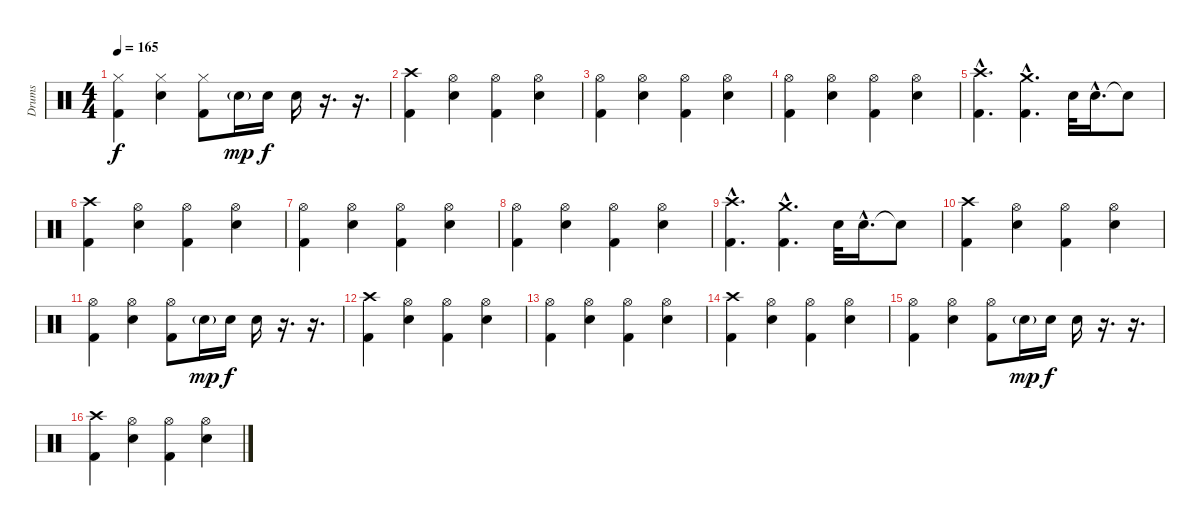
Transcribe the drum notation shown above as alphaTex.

\track ("Drums" "Drums") {instrument percussion}
\staff {score}
\articulation defaults
\ts (4 4)
\tempo 165
\clef neutral
\ks c
("Hi-Hat (closed)" "Kick (hit) 2").4{dy f} ("Hi-Hat (closed)" "Snare (hit) 2").4 ("Hi-Hat (closed)" "Kick (hit) 2").8 "Snare (hit) 2"{g}.16{dy mp} "Snare (hit) 2".16{dy f} "Snare (hit) 2".16 r.16{d} r.16{d} |
("Crash high (hit)" "Kick (hit) 2").4 ("Hi-Hat (open)" "Snare (hit) 2").4 ("Hi-Hat (open)" "Kick (hit) 2").4 ("Hi-Hat (open)" "Snare (hit) 2").4 |
("Hi-Hat (open)" "Kick (hit) 2").4 ("Hi-Hat (open)" "Snare (hit) 2").4 ("Hi-Hat (open)" "Kick (hit) 2").4 ("Hi-Hat (open)" "Snare (hit) 2").4 |
("Hi-Hat (open)" "Kick (hit) 2").4 ("Hi-Hat (open)" "Snare (hit) 2").4 ("Hi-Hat (open)" "Kick (hit) 2").4 ("Hi-Hat (open)" "Snare (hit) 2").4 |
("Crash high (hit)"{hac} "Kick (hit) 2"{hac}).4{d} ("Crash medium (hit)"{hac} "Kick (hit) 2"{hac}).4{d} "Electric Snare (hit)".32 "Electric Snare (hit)"{hac}.16{d} "Electric Snare (hit)"{t}.8 |
("Crash high (hit)" "Kick (hit) 2").4 ("Hi-Hat (open)" "Snare (hit) 2").4 ("Hi-Hat (open)" "Kick (hit) 2").4 ("Hi-Hat (open)" "Snare (hit) 2").4 |
("Hi-Hat (open)" "Kick (hit) 2").4 ("Hi-Hat (open)" "Snare (hit) 2").4 ("Hi-Hat (open)" "Kick (hit) 2").4 ("Hi-Hat (open)" "Snare (hit) 2").4 |
("Hi-Hat (open)" "Kick (hit) 2").4 ("Hi-Hat (open)" "Snare (hit) 2").4 ("Hi-Hat (open)" "Kick (hit) 2").4 ("Hi-Hat (open)" "Snare (hit) 2").4 |
("Crash high (hit)"{hac} "Kick (hit) 2"{hac}).4{d} ("Crash medium (hit)"{hac} "Kick (hit) 2"{hac}).4{d} "Electric Snare (hit)".32 "Electric Snare (hit)"{hac}.16{d} "Electric Snare (hit)"{t}.8 |
("Crash high (hit)" "Kick (hit) 2").4 ("Hi-Hat (open)" "Snare (hit) 2").4 ("Hi-Hat (open)" "Kick (hit) 2").4 ("Hi-Hat (open)" "Snare (hit) 2").4 |
("Hi-Hat (open)" "Kick (hit) 2").4 ("Hi-Hat (open)" "Snare (hit) 2").4 ("Hi-Hat (open)" "Kick (hit) 2").8 "Snare (hit) 2"{g}.16{dy mp} "Snare (hit) 2".16{dy f} "Snare (hit) 2".16 r.16{d} r.16{d} |
("Crash high (hit)" "Kick (hit) 2").4 ("Hi-Hat (open)" "Snare (hit) 2").4 ("Hi-Hat (open)" "Kick (hit) 2").4 ("Hi-Hat (open)" "Snare (hit) 2").4 |
("Hi-Hat (open)" "Kick (hit) 2").4 ("Hi-Hat (open)" "Snare (hit) 2").4 ("Hi-Hat (open)" "Kick (hit) 2").4 ("Hi-Hat (open)" "Snare (hit) 2").4 |
("Crash high (hit)" "Kick (hit) 2").4 ("Hi-Hat (open)" "Snare (hit) 2").4 ("Hi-Hat (open)" "Kick (hit) 2").4 ("Hi-Hat (open)" "Snare (hit) 2").4 |
("Hi-Hat (open)" "Kick (hit) 2").4 ("Hi-Hat (open)" "Snare (hit) 2").4 ("Hi-Hat (open)" "Kick (hit) 2").8 "Snare (hit) 2"{g}.16{dy mp} "Snare (hit) 2".16{dy f} "Snare (hit) 2".16 r.16{d} r.16{d} |
("Crash high (hit)" "Kick (hit) 2").4 ("Hi-Hat (open)" "Snare (hit) 2").4 ("Hi-Hat (open)" "Kick (hit) 2").4 ("Hi-Hat (open)" "Snare (hit) 2").4
